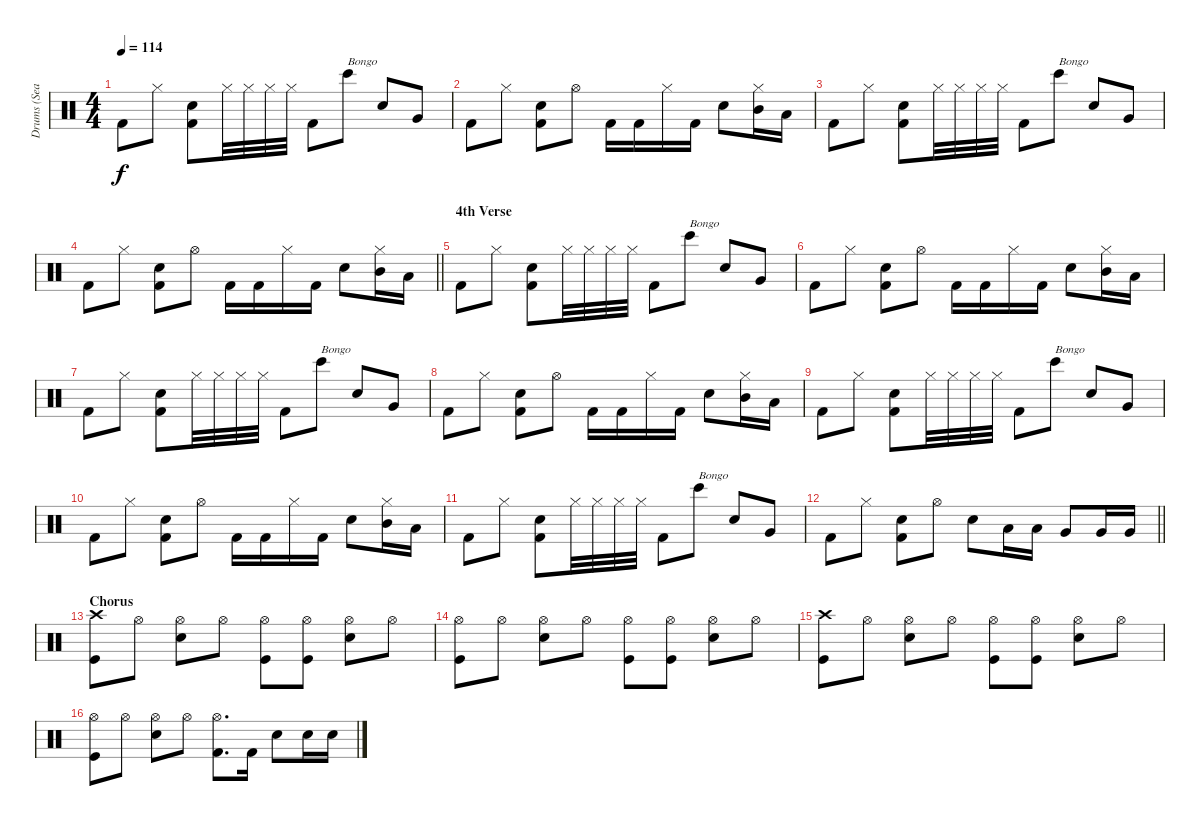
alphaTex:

\track ("Drums (Sean)" "Drums (Sea") {instrument percussion}
\staff {score}
\articulation defaults
\ts (4 4)
\tempo 114
\clef neutral
\ks c "Kick (hit) 2".8{dy f} "Hi-Hat (closed)".8
("Snare (hit) 2" "Kick (hit) 2").8 "Hi-Hat (closed)".32 "Hi-Hat (closed)".32 "Hi-Hat (closed)".32 "Hi-Hat (closed)".32 "Kick (hit) 2".8 "Bongo High (hit)".8{txt "Bongo"} "Snare (hit) 2".8 "Very Low Tom (hit)".8 |
"Kick (hit) 2".8 "Hi-Hat (closed)".8 ("Snare (hit) 2" "Kick (hit) 2").8 "Hi-Hat (open)".8 "Kick (hit) 2".16 "Kick (hit) 2".16 "Hi-Hat (closed)".16 "Kick (hit) 2".16 "Snare (hit) 2".8 ("Hi-Hat (closed)" "Mid Tom (hit)").16 "Low Tom (hit)".16 |
"Kick (hit) 2".8 "Hi-Hat (closed)".8 ("Snare (hit) 2" "Kick (hit) 2").8 "Hi-Hat (closed)".32 "Hi-Hat (closed)".32 "Hi-Hat (closed)".32 "Hi-Hat (closed)".32 "Kick (hit) 2".8 "Bongo High (hit)".8{txt "Bongo"} "Snare (hit) 2".8 "Very Low Tom (hit)".8 |
\barLineRight lightlight "Kick (hit) 2".8 "Hi-Hat (closed)".8
("Snare (hit) 2" "Kick (hit) 2").8 "Hi-Hat (open)".8 "Kick (hit) 2".16 "Kick (hit) 2".16 "Hi-Hat (closed)".16 "Kick (hit) 2".16 "Snare (hit) 2".8 ("Hi-Hat (closed)" "Mid Tom (hit)").16 "Low Tom (hit)".16 |
\section ("" "4th Verse")
"Kick (hit) 2".8 "Hi-Hat (closed)".8 ("Snare (hit) 2" "Kick (hit) 2").8 "Hi-Hat (closed)".32 "Hi-Hat (closed)".32 "Hi-Hat (closed)".32 "Hi-Hat (closed)".32 "Kick (hit) 2".8 "Bongo High (hit)".8{txt "Bongo"} "Snare (hit) 2".8 "Very Low Tom (hit)".8 |
"Kick (hit) 2".8 "Hi-Hat (closed)".8 ("Snare (hit) 2" "Kick (hit) 2").8 "Hi-Hat (open)".8 "Kick (hit) 2".16 "Kick (hit) 2".16 "Hi-Hat (closed)".16 "Kick (hit) 2".16 "Snare (hit) 2".8 ("Hi-Hat (closed)" "Mid Tom (hit)").16 "Low Tom (hit)".16 |
"Kick (hit) 2".8 "Hi-Hat (closed)".8 ("Snare (hit) 2" "Kick (hit) 2").8 "Hi-Hat (closed)".32 "Hi-Hat (closed)".32 "Hi-Hat (closed)".32 "Hi-Hat (closed)".32 "Kick (hit) 2".8 "Bongo High (hit)".8{txt "Bongo"} "Snare (hit) 2".8 "Very Low Tom (hit)".8 |
"Kick (hit) 2".8 "Hi-Hat (closed)".8 ("Snare (hit) 2" "Kick (hit) 2").8 "Hi-Hat (open)".8 "Kick (hit) 2".16 "Kick (hit) 2".16 "Hi-Hat (closed)".16 "Kick (hit) 2".16 "Snare (hit) 2".8 ("Hi-Hat (closed)" "Mid Tom (hit)").16 "Low Tom (hit)".16 |
"Kick (hit) 2".8 "Hi-Hat (closed)".8 ("Snare (hit) 2" "Kick (hit) 2").8 "Hi-Hat (closed)".32 "Hi-Hat (closed)".32 "Hi-Hat (closed)".32 "Hi-Hat (closed)".32 "Kick (hit) 2".8 "Bongo High (hit)".8{txt "Bongo"} "Snare (hit) 2".8 "Very Low Tom (hit)".8 |
"Kick (hit) 2".8 "Hi-Hat (closed)".8 ("Snare (hit) 2" "Kick (hit) 2").8 "Hi-Hat (open)".8 "Kick (hit) 2".16 "Kick (hit) 2".16 "Hi-Hat (closed)".16 "Kick (hit) 2".16 "Snare (hit) 2".8 ("Hi-Hat (closed)" "Mid Tom (hit)").16 "Low Tom (hit)".16 |
"Kick (hit) 2".8 "Hi-Hat (closed)".8 ("Snare (hit) 2" "Kick (hit) 2").8 "Hi-Hat (closed)".32 "Hi-Hat (closed)".32 "Hi-Hat (closed)".32 "Hi-Hat (closed)".32 "Kick (hit) 2".8 "Bongo High (hit)".8{txt "Bongo"} "Snare (hit) 2".8 "Very Low Tom (hit)".8 |
\barLineRight lightlight "Kick (hit) 2".8 "Hi-Hat (closed)".8
("Snare (hit) 2" "Kick (hit) 2").8 "Hi-Hat (open)".8 "Snare (hit) 2".8 "Low Tom (hit)".16 "Low Tom (hit)".16 "Very Low Tom (hit)".8 "Very Low Tom (hit)".16 "Very Low Tom (hit)".16 |
\section ("" "Chorus")
("Kick (hit)" "Crash high (hit)").8 "Hi-Hat (open)".8 ("Snare (hit) 2" "Hi-Hat (open)").8 "Hi-Hat (open)".8 ("Kick (hit)" "Hi-Hat (open)").8 ("Kick (hit)" "Hi-Hat (open)").8 ("Snare (hit) 2" "Hi-Hat (open)").8 "Hi-Hat (open)".8 |
("Kick (hit)" "Hi-Hat (open)").8 "Hi-Hat (open)".8 ("Snare (hit) 2" "Hi-Hat (open)").8 "Hi-Hat (open)".8 ("Kick (hit)" "Hi-Hat (open)").8 ("Kick (hit)" "Hi-Hat (open)").8 ("Snare (hit) 2" "Hi-Hat (open)").8 "Hi-Hat (open)".8 |
("Kick (hit)" "Crash high (hit)").8 "Hi-Hat (open)".8 ("Snare (hit) 2" "Hi-Hat (open)").8 "Hi-Hat (open)".8 ("Kick (hit)" "Hi-Hat (open)").8 ("Kick (hit)" "Hi-Hat (open)").8 ("Snare (hit) 2" "Hi-Hat (open)").8 "Hi-Hat (open)".8 |
("Kick (hit)" "Hi-Hat (open)").8 "Hi-Hat (open)".8 ("Snare (hit) 2" "Hi-Hat (open)").8 "Hi-Hat (open)".8 ("Kick (hit) 2" "Hi-Hat (open)").8{d} "Kick (hit) 2".16 "Snare (hit) 2".8 "Snare (hit) 2".16 "Snare (hit) 2".16
